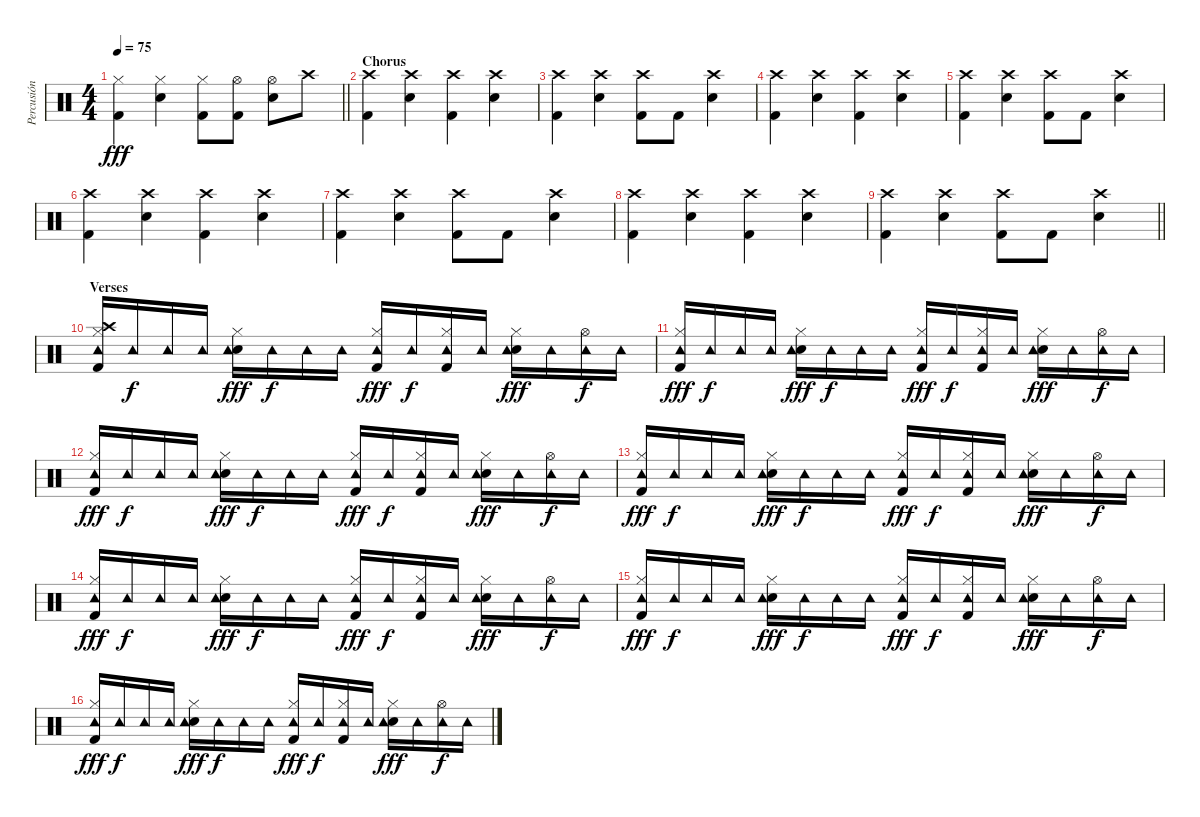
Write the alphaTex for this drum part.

\track ("Percusión" "Percusión") {solo instrument percussion}
\staff {score}
\articulation defaults
\ts (4 4)
\tempo 75
\clef neutral
\barLineRight lightlight
\ks c
("Kick (hit) 2" "Hi-Hat (closed)").4{dy fff} ("Electric Snare (hit)" "Hi-Hat (closed)").4 ("Kick (hit) 2" "Hi-Hat (closed)").8 ("Kick (hit) 2" "Hi-Hat (open)").8 ("Electric Snare (hit)" "Hi-Hat (open)").8 "Crash high (hit)".8 |
\section ("" "Chorus")
("Kick (hit) 2" "Crash high (hit)").4 ("Electric Snare (hit)" "Crash high (hit)").4 ("Kick (hit) 2" "Crash high (hit)").4 ("Electric Snare (hit)" "Crash high (hit)").4 |
("Kick (hit) 2" "Crash high (hit)").4 ("Electric Snare (hit)" "Crash high (hit)").4 ("Kick (hit) 2" "Crash high (hit)").8 "Kick (hit) 2".8 ("Electric Snare (hit)" "Crash high (hit)").4 |
("Kick (hit) 2" "Crash high (hit)").4 ("Electric Snare (hit)" "Crash high (hit)").4 ("Kick (hit) 2" "Crash high (hit)").4 ("Electric Snare (hit)" "Crash high (hit)").4 |
("Kick (hit) 2" "Crash high (hit)").4 ("Electric Snare (hit)" "Crash high (hit)").4 ("Kick (hit) 2" "Crash high (hit)").8 "Kick (hit) 2".8 ("Electric Snare (hit)" "Crash high (hit)").4 |
("Kick (hit) 2" "Crash high (hit)").4 ("Electric Snare (hit)" "Crash high (hit)").4 ("Kick (hit) 2" "Crash high (hit)").4 ("Electric Snare (hit)" "Crash high (hit)").4 |
("Kick (hit) 2" "Crash high (hit)").4 ("Electric Snare (hit)" "Crash high (hit)").4 ("Kick (hit) 2" "Crash high (hit)").8 "Kick (hit) 2".8 ("Electric Snare (hit)" "Crash high (hit)").4 |
("Kick (hit) 2" "Crash high (hit)").4 ("Electric Snare (hit)" "Crash high (hit)").4 ("Kick (hit) 2" "Crash high (hit)").4 ("Electric Snare (hit)" "Crash high (hit)").4 |
\barLineRight lightlight
("Kick (hit) 2" "Crash high (hit)").4 ("Electric Snare (hit)" "Crash high (hit)").4 ("Kick (hit) 2" "Crash high (hit)").8 "Kick (hit) 2".8 ("Electric Snare (hit)" "Crash high (hit)").4 |
\section ("" "Verses")
("Crash high (hit)" "Kick (hit) 2" "Hi-Hat (closed)" "Tambourine (hit)").16 "Tambourine (hit)".16{dy f} "Tambourine (hit)".16 "Tambourine (hit)".16 ("Electric Snare (hit)" "Hi-Hat (closed)" "Tambourine (hit)").16{dy fff} "Tambourine (hit)".16{dy f} "Tambourine (hit)".16 "Tambourine (hit)".16 ("Kick (hit) 2" "Hi-Hat (closed)" "Tambourine (hit)").16{dy fff} "Tambourine (hit)".16{dy f} ("Kick (hit) 2" "Hi-Hat (closed)" "Tambourine (hit)").16 "Tambourine (hit)".16 ("Electric Snare (hit)" "Hi-Hat (closed)" "Tambourine (hit)").16{dy fff} "Tambourine (hit)".16 ("Hi-Hat (open)" "Tambourine (hit)").16{dy f} "Tambourine (hit)".16 |
("Kick (hit) 2" "Hi-Hat (closed)" "Tambourine (hit)").16{dy fff} "Tambourine (hit)".16{dy f} "Tambourine (hit)".16 "Tambourine (hit)".16 ("Electric Snare (hit)" "Hi-Hat (closed)" "Tambourine (hit)").16{dy fff} "Tambourine (hit)".16{dy f} "Tambourine (hit)".16 "Tambourine (hit)".16 ("Kick (hit) 2" "Hi-Hat (closed)" "Tambourine (hit)").16{dy fff} "Tambourine (hit)".16{dy f} ("Kick (hit) 2" "Hi-Hat (closed)" "Tambourine (hit)").16 "Tambourine (hit)".16 ("Electric Snare (hit)" "Hi-Hat (closed)" "Tambourine (hit)").16{dy fff} "Tambourine (hit)".16 ("Hi-Hat (open)" "Tambourine (hit)").16{dy f} "Tambourine (hit)".16 |
("Kick (hit) 2" "Hi-Hat (closed)" "Tambourine (hit)").16{dy fff} "Tambourine (hit)".16{dy f} "Tambourine (hit)".16 "Tambourine (hit)".16 ("Electric Snare (hit)" "Hi-Hat (closed)" "Tambourine (hit)").16{dy fff} "Tambourine (hit)".16{dy f} "Tambourine (hit)".16 "Tambourine (hit)".16 ("Kick (hit) 2" "Hi-Hat (closed)" "Tambourine (hit)").16{dy fff} "Tambourine (hit)".16{dy f} ("Kick (hit) 2" "Hi-Hat (closed)" "Tambourine (hit)").16 "Tambourine (hit)".16 ("Electric Snare (hit)" "Hi-Hat (closed)" "Tambourine (hit)").16{dy fff} "Tambourine (hit)".16 ("Hi-Hat (open)" "Tambourine (hit)").16{dy f} "Tambourine (hit)".16 |
("Kick (hit) 2" "Hi-Hat (closed)" "Tambourine (hit)").16{dy fff} "Tambourine (hit)".16{dy f} "Tambourine (hit)".16 "Tambourine (hit)".16 ("Electric Snare (hit)" "Hi-Hat (closed)" "Tambourine (hit)").16{dy fff} "Tambourine (hit)".16{dy f} "Tambourine (hit)".16 "Tambourine (hit)".16 ("Kick (hit) 2" "Hi-Hat (closed)" "Tambourine (hit)").16{dy fff} "Tambourine (hit)".16{dy f} ("Kick (hit) 2" "Hi-Hat (closed)" "Tambourine (hit)").16 "Tambourine (hit)".16 ("Electric Snare (hit)" "Hi-Hat (closed)" "Tambourine (hit)").16{dy fff} "Tambourine (hit)".16 ("Hi-Hat (open)" "Tambourine (hit)").16{dy f} "Tambourine (hit)".16 |
("Kick (hit) 2" "Hi-Hat (closed)" "Tambourine (hit)").16{dy fff} "Tambourine (hit)".16{dy f} "Tambourine (hit)".16 "Tambourine (hit)".16 ("Electric Snare (hit)" "Hi-Hat (closed)" "Tambourine (hit)").16{dy fff} "Tambourine (hit)".16{dy f} "Tambourine (hit)".16 "Tambourine (hit)".16 ("Kick (hit) 2" "Hi-Hat (closed)" "Tambourine (hit)").16{dy fff} "Tambourine (hit)".16{dy f} ("Kick (hit) 2" "Hi-Hat (closed)" "Tambourine (hit)").16 "Tambourine (hit)".16 ("Electric Snare (hit)" "Hi-Hat (closed)" "Tambourine (hit)").16{dy fff} "Tambourine (hit)".16 ("Hi-Hat (open)" "Tambourine (hit)").16{dy f} "Tambourine (hit)".16 |
("Kick (hit) 2" "Hi-Hat (closed)" "Tambourine (hit)").16{dy fff} "Tambourine (hit)".16{dy f} "Tambourine (hit)".16 "Tambourine (hit)".16 ("Electric Snare (hit)" "Hi-Hat (closed)" "Tambourine (hit)").16{dy fff} "Tambourine (hit)".16{dy f} "Tambourine (hit)".16 "Tambourine (hit)".16 ("Kick (hit) 2" "Hi-Hat (closed)" "Tambourine (hit)").16{dy fff} "Tambourine (hit)".16{dy f} ("Kick (hit) 2" "Hi-Hat (closed)" "Tambourine (hit)").16 "Tambourine (hit)".16 ("Electric Snare (hit)" "Hi-Hat (closed)" "Tambourine (hit)").16{dy fff} "Tambourine (hit)".16 ("Hi-Hat (open)" "Tambourine (hit)").16{dy f} "Tambourine (hit)".16 |
("Kick (hit) 2" "Hi-Hat (closed)" "Tambourine (hit)").16{dy fff} "Tambourine (hit)".16{dy f} "Tambourine (hit)".16 "Tambourine (hit)".16 ("Electric Snare (hit)" "Hi-Hat (closed)" "Tambourine (hit)").16{dy fff} "Tambourine (hit)".16{dy f} "Tambourine (hit)".16 "Tambourine (hit)".16 ("Kick (hit) 2" "Hi-Hat (closed)" "Tambourine (hit)").16{dy fff} "Tambourine (hit)".16{dy f} ("Kick (hit) 2" "Hi-Hat (closed)" "Tambourine (hit)").16 "Tambourine (hit)".16 ("Electric Snare (hit)" "Hi-Hat (closed)" "Tambourine (hit)").16{dy fff} "Tambourine (hit)".16 ("Hi-Hat (open)" "Tambourine (hit)").16{dy f} "Tambourine (hit)".16
